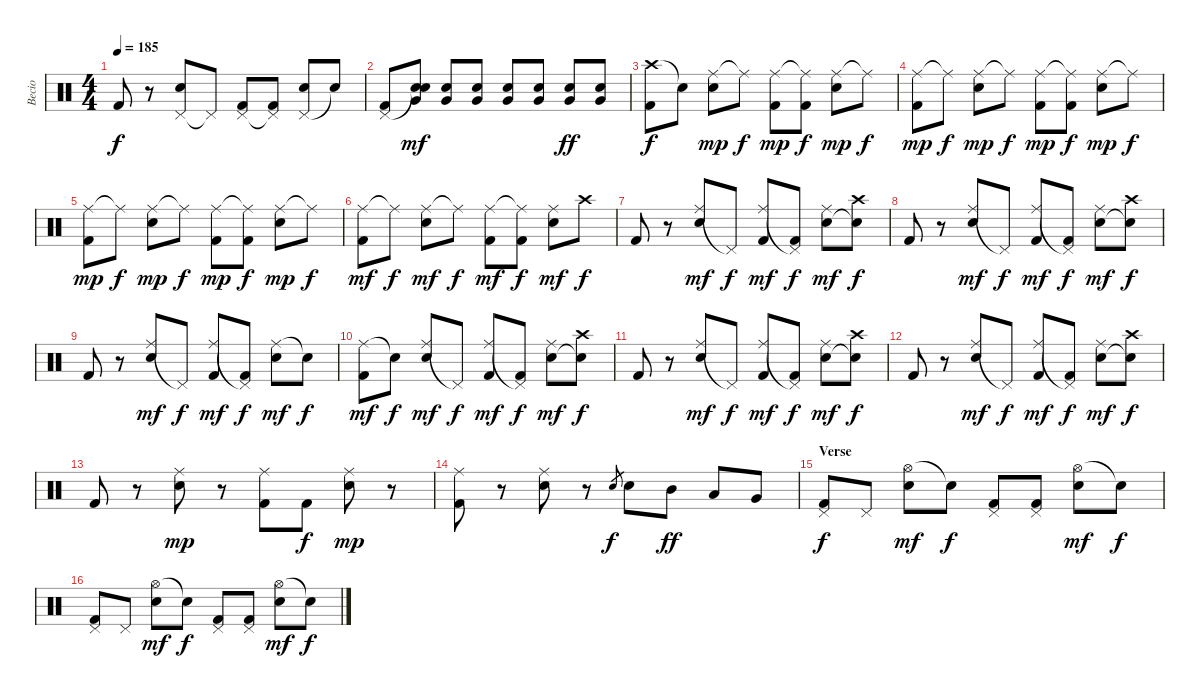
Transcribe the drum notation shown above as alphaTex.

\track ("Becio" "Becio") {instrument percussion}
\staff {score}
\articulation defaults
\ts (4 4)
\tempo 185
\clef neutral
\ks c "Kick (hit) 2".8{dy f}
r.8 ("Pedal Hi-Hat (hit)" "Electric Snare (hit)").8 "Pedal Hi-Hat (hit)"{t}.8 ("Pedal Hi-Hat (hit)" "Kick (hit) 2").8 ("Pedal Hi-Hat (hit)"{t} "Kick (hit) 2").8 ("Pedal Hi-Hat (hit)" "Electric Snare (hit)").8 "Snare (hit)"{t}.8 |
("Pedal Hi-Hat (hit)" "Kick (hit) 2").8 ("Snare (hit)"{t} "Electric Snare (hit)" "Very Low Tom (hit)").8{dy mf} ("Electric Snare (hit)" "Very Low Tom (hit)").8 ("Electric Snare (hit)" "Very Low Tom (hit)").8 ("Electric Snare (hit)" "Very Low Tom (hit)").8 ("Electric Snare (hit)" "Very Low Tom (hit)").8 ("Electric Snare (hit)" "Very Low Tom (hit)").8{dy ff} ("Electric Snare (hit)" "Very Low Tom (hit)").8 |
("Crash high (hit)" "Kick (hit) 2").8{dy f} "Snare (hit)"{t}.8 ("Ride (middle)" "Electric Snare (hit)").8{dy mp} "Ride (middle)"{t}.8{dy f} ("Ride (middle)" "Kick (hit) 2").8{dy mp} ("Ride (middle)"{t} "Kick (hit) 2").8{dy f} ("Ride (middle)" "Electric Snare (hit)").8{dy mp} "Ride (middle)"{t}.8{dy f} |
("Ride (middle)" "Kick (hit) 2").8{dy mp} "Ride (middle)"{t}.8{dy f} ("Ride (middle)" "Electric Snare (hit)").8{dy mp} "Ride (middle)"{t}.8{dy f} ("Ride (middle)" "Kick (hit) 2").8{dy mp} ("Ride (middle)"{t} "Kick (hit) 2").8{dy f} ("Ride (middle)" "Electric Snare (hit)").8{dy mp} "Ride (middle)"{t}.8{dy f} |
("Ride (middle)" "Kick (hit) 2").8{dy mp} "Ride (middle)"{t}.8{dy f} ("Ride (middle)" "Electric Snare (hit)").8{dy mp} "Ride (middle)"{t}.8{dy f} ("Ride (middle)" "Kick (hit) 2").8{dy mp} ("Ride (middle)"{t} "Kick (hit) 2").8{dy f} ("Ride (middle)" "Electric Snare (hit)").8{dy mp} "Ride (middle)"{t}.8{dy f} |
("Ride (middle)" "Kick (hit) 2").8{dy mf} "Ride (middle)"{t}.8{dy f} ("Ride (middle)" "Electric Snare (hit)").8{dy mf} "Ride (middle)"{t}.8{dy f} ("Ride (middle)" "Kick (hit) 2").8{dy mf} ("Ride (middle)"{t} "Kick (hit) 2").8{dy f} ("Ride (middle)" "Electric Snare (hit)").8{dy mf} "Crash high (hit)".8{dy f} |
"Kick (hit) 2".8 r.8 ("Ride (middle)" "Electric Snare (hit)").8{dy mf} "Pedal Hi-Hat (hit)"{t}.8{dy f} ("Ride (middle)" "Kick (hit) 2").8{dy mf} ("Pedal Hi-Hat (hit)"{t} "Kick (hit) 2").8{dy f} ("Ride (middle)" "Electric Snare (hit)").8{dy mf} ("Crash high (hit)" "Snare (hit)"{t}).8{dy f} |
"Kick (hit) 2".8 r.8 ("Ride (middle)" "Electric Snare (hit)").8{dy mf} "Pedal Hi-Hat (hit)"{t}.8{dy f} ("Ride (middle)" "Kick (hit) 2").8{dy mf} ("Pedal Hi-Hat (hit)"{t} "Kick (hit) 2").8{dy f} ("Ride (middle)" "Electric Snare (hit)").8{dy mf} ("Crash high (hit)" "Snare (hit)"{t}).8{dy f} |
"Kick (hit) 2".8 r.8 ("Ride (middle)" "Electric Snare (hit)").8{dy mf} "Pedal Hi-Hat (hit)"{t}.8{dy f} ("Ride (middle)" "Kick (hit) 2").8{dy mf} ("Pedal Hi-Hat (hit)"{t} "Kick (hit) 2").8{dy f} ("Ride (middle)" "Electric Snare (hit)").8{dy mf} "Snare (hit)"{t}.8{dy f} |
("Ride (middle)" "Kick (hit) 2").8{dy mf} "Snare (hit)"{t}.8{dy f} ("Ride (middle)" "Electric Snare (hit)").8{dy mf} "Pedal Hi-Hat (hit)"{t}.8{dy f} ("Ride (middle)" "Kick (hit) 2").8{dy mf} ("Pedal Hi-Hat (hit)"{t} "Kick (hit) 2").8{dy f} ("Ride (middle)" "Electric Snare (hit)").8{dy mf} ("Crash high (hit)" "Snare (hit)"{t}).8{dy f} |
"Kick (hit) 2".8 r.8 ("Ride (middle)" "Electric Snare (hit)").8{dy mf} "Pedal Hi-Hat (hit)"{t}.8{dy f} ("Ride (middle)" "Kick (hit) 2").8{dy mf} ("Pedal Hi-Hat (hit)"{t} "Kick (hit) 2").8{dy f} ("Ride (middle)" "Electric Snare (hit)").8{dy mf} ("Crash high (hit)" "Snare (hit)"{t}).8{dy f} |
"Kick (hit) 2".8 r.8 ("Ride (middle)" "Electric Snare (hit)").8{dy mf} "Pedal Hi-Hat (hit)"{t}.8{dy f} ("Ride (middle)" "Kick (hit) 2").8{dy mf} ("Pedal Hi-Hat (hit)"{t} "Kick (hit) 2").8{dy f} ("Ride (middle)" "Electric Snare (hit)").8{dy mf} ("Crash high (hit)" "Snare (hit)"{t}).8{dy f} |
"Kick (hit) 2".8 r.8 ("Ride (middle)" "Electric Snare (hit)").8{dy mp} r.8 ("Ride (middle)" "Kick (hit) 2").8 "Kick (hit) 2".8{dy f} ("Ride (middle)" "Electric Snare (hit)").8{dy mp} r.8 |
("Ride (middle)" "Kick (hit) 2").8 r.8 ("Ride (middle)" "Electric Snare (hit)").8 r.8 "Electric Snare (hit)".8{gr dy f} "Electric Snare (hit)".8 "Mid Tom (hit)".8{dy ff} "Low Tom (hit)".8 "Very Low Tom (hit)".8 |
\section ("" "Verse")
("Pedal Hi-Hat (hit)" "Kick (hit) 2").8{dy f} "Pedal Hi-Hat (hit)".8 ("Hi-Hat (open)" "Electric Snare (hit)").8{dy mf} "Snare (hit)"{t}.8{dy f} ("Pedal Hi-Hat (hit)" "Kick (hit) 2").8 ("Pedal Hi-Hat (hit)" "Kick (hit) 2").8 ("Hi-Hat (open)" "Electric Snare (hit)").8{dy mf} "Snare (hit)"{t}.8{dy f} |
("Pedal Hi-Hat (hit)" "Kick (hit) 2").8 "Pedal Hi-Hat (hit)".8 ("Hi-Hat (open)" "Electric Snare (hit)").8{dy mf} "Snare (hit)"{t}.8{dy f} ("Pedal Hi-Hat (hit)" "Kick (hit) 2").8 ("Pedal Hi-Hat (hit)" "Kick (hit) 2").8 ("Hi-Hat (open)" "Electric Snare (hit)").8{dy mf} "Snare (hit)"{t}.8{dy f}
